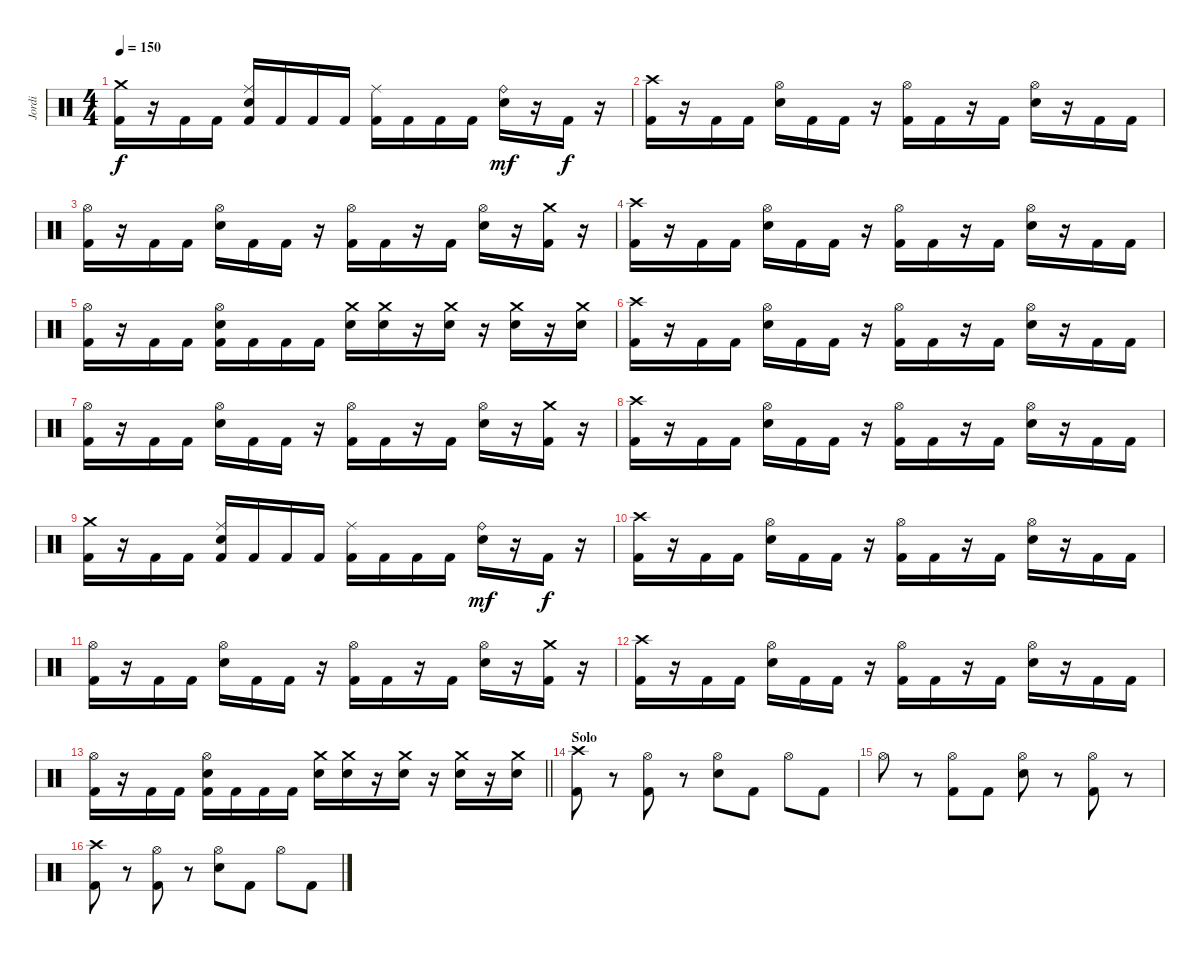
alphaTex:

\track ("Jordi" "Jordi") {instrument percussion}
\staff {score}
\articulation defaults
\ts (4 4)
\tempo 150
\clef neutral
\ks c
("Crash medium (hit)" "Kick (hit) 2").16{dy f} r.16 "Kick (hit) 2".16 "Kick (hit) 2".16 ("Ride (middle)" "Snare (hit) 2" "Kick (hit) 2").16 "Kick (hit) 2".16 "Kick (hit) 2".16 "Kick (hit) 2".16 ("Ride (middle)" "Kick (hit) 2").16 "Kick (hit) 2".16 "Kick (hit) 2".16 "Kick (hit) 2".16 ("Ride (bell)" "Snare (hit) 2").16{dy mf} r.16 "Kick (hit) 2".16{dy f} r.16 |
("Crash high (hit)" "Kick (hit) 2").16 r.16 "Kick (hit) 2".16 "Kick (hit) 2".16 ("Hi-Hat (open)" "Snare (hit) 2").16 "Kick (hit) 2".16 "Kick (hit) 2".16 r.16 ("Hi-Hat (open)" "Kick (hit) 2").16 "Kick (hit) 2".16 r.16 "Kick (hit) 2".16 ("Hi-Hat (open)" "Snare (hit) 2").16 r.16 "Kick (hit) 2".16 "Kick (hit) 2".16 |
("Hi-Hat (open)" "Kick (hit) 2").16 r.16 "Kick (hit) 2".16 "Kick (hit) 2".16 ("Hi-Hat (open)" "Snare (hit) 2").16 "Kick (hit) 2".16 "Kick (hit) 2".16 r.16 ("Hi-Hat (open)" "Kick (hit) 2").16 "Kick (hit) 2".16 r.16 "Kick (hit) 2".16 ("Hi-Hat (open)" "Snare (hit) 2").16 r.16 ("Crash medium (hit)" "Kick (hit) 2").16 r.16 |
("Crash high (hit)" "Kick (hit) 2").16 r.16 "Kick (hit) 2".16 "Kick (hit) 2".16 ("Hi-Hat (open)" "Snare (hit) 2").16 "Kick (hit) 2".16 "Kick (hit) 2".16 r.16 ("Hi-Hat (open)" "Kick (hit) 2").16 "Kick (hit) 2".16 r.16 "Kick (hit) 2".16 ("Hi-Hat (open)" "Snare (hit) 2").16 r.16 "Kick (hit) 2".16 "Kick (hit) 2".16 |
("Hi-Hat (open)" "Kick (hit) 2").16 r.16 "Kick (hit) 2".16 "Kick (hit) 2".16 ("Hi-Hat (open)" "Snare (hit) 2" "Kick (hit) 2").16 "Kick (hit) 2".16 "Kick (hit) 2".16 "Kick (hit) 2".16 ("Crash medium (hit)" "Snare (hit) 2").16 ("Crash medium (hit)" "Snare (hit) 2").16 r.16 ("Crash medium (hit)" "Snare (hit) 2").16 r.16 ("Crash medium (hit)" "Snare (hit) 2").16 r.16 ("Crash medium (hit)" "Snare (hit) 2").16 |
("Crash high (hit)" "Kick (hit) 2").16 r.16 "Kick (hit) 2".16 "Kick (hit) 2".16 ("Hi-Hat (open)" "Snare (hit) 2").16 "Kick (hit) 2".16 "Kick (hit) 2".16 r.16 ("Hi-Hat (open)" "Kick (hit) 2").16 "Kick (hit) 2".16 r.16 "Kick (hit) 2".16 ("Hi-Hat (open)" "Snare (hit) 2").16 r.16 "Kick (hit) 2".16 "Kick (hit) 2".16 |
("Hi-Hat (open)" "Kick (hit) 2").16 r.16 "Kick (hit) 2".16 "Kick (hit) 2".16 ("Hi-Hat (open)" "Snare (hit) 2").16 "Kick (hit) 2".16 "Kick (hit) 2".16 r.16 ("Hi-Hat (open)" "Kick (hit) 2").16 "Kick (hit) 2".16 r.16 "Kick (hit) 2".16 ("Hi-Hat (open)" "Snare (hit) 2").16 r.16 ("Crash medium (hit)" "Kick (hit) 2").16 r.16 |
("Crash high (hit)" "Kick (hit) 2").16 r.16 "Kick (hit) 2".16 "Kick (hit) 2".16 ("Hi-Hat (open)" "Snare (hit) 2").16 "Kick (hit) 2".16 "Kick (hit) 2".16 r.16 ("Hi-Hat (open)" "Kick (hit) 2").16 "Kick (hit) 2".16 r.16 "Kick (hit) 2".16 ("Hi-Hat (open)" "Snare (hit) 2").16 r.16 "Kick (hit) 2".16 "Kick (hit) 2".16 |
("Crash medium (hit)" "Kick (hit) 2").16 r.16 "Kick (hit) 2".16 "Kick (hit) 2".16 ("Ride (middle)" "Snare (hit) 2" "Kick (hit) 2").16 "Kick (hit) 2".16 "Kick (hit) 2".16 "Kick (hit) 2".16 ("Ride (middle)" "Kick (hit) 2").16 "Kick (hit) 2".16 "Kick (hit) 2".16 "Kick (hit) 2".16 ("Ride (bell)" "Snare (hit) 2").16{dy mf} r.16 "Kick (hit) 2".16{dy f} r.16 |
("Crash high (hit)" "Kick (hit) 2").16 r.16 "Kick (hit) 2".16 "Kick (hit) 2".16 ("Hi-Hat (open)" "Snare (hit) 2").16 "Kick (hit) 2".16 "Kick (hit) 2".16 r.16 ("Hi-Hat (open)" "Kick (hit) 2").16 "Kick (hit) 2".16 r.16 "Kick (hit) 2".16 ("Hi-Hat (open)" "Snare (hit) 2").16 r.16 "Kick (hit) 2".16 "Kick (hit) 2".16 |
("Hi-Hat (open)" "Kick (hit) 2").16 r.16 "Kick (hit) 2".16 "Kick (hit) 2".16 ("Hi-Hat (open)" "Snare (hit) 2").16 "Kick (hit) 2".16 "Kick (hit) 2".16 r.16 ("Hi-Hat (open)" "Kick (hit) 2").16 "Kick (hit) 2".16 r.16 "Kick (hit) 2".16 ("Hi-Hat (open)" "Snare (hit) 2").16 r.16 ("Crash medium (hit)" "Kick (hit) 2").16 r.16 |
("Crash high (hit)" "Kick (hit) 2").16 r.16 "Kick (hit) 2".16 "Kick (hit) 2".16 ("Hi-Hat (open)" "Snare (hit) 2").16 "Kick (hit) 2".16 "Kick (hit) 2".16 r.16 ("Hi-Hat (open)" "Kick (hit) 2").16 "Kick (hit) 2".16 r.16 "Kick (hit) 2".16 ("Hi-Hat (open)" "Snare (hit) 2").16 r.16 "Kick (hit) 2".16 "Kick (hit) 2".16 |
\barLineRight lightlight
("Hi-Hat (open)" "Kick (hit) 2").16 r.16 "Kick (hit) 2".16 "Kick (hit) 2".16 ("Hi-Hat (open)" "Snare (hit) 2" "Kick (hit) 2").16 "Kick (hit) 2".16 "Kick (hit) 2".16 "Kick (hit) 2".16 ("Crash medium (hit)" "Snare (hit) 2").16 ("Crash medium (hit)" "Snare (hit) 2").16 r.16 ("Crash medium (hit)" "Snare (hit) 2").16 r.16 ("Crash medium (hit)" "Snare (hit) 2").16 r.16 ("Crash medium (hit)" "Snare (hit) 2").16 |
\section ("" "Solo")
("Crash high (hit)" "Kick (hit) 2").8 r.8 ("Hi-Hat (open)" "Kick (hit) 2").8 r.8 ("Hi-Hat (open)" "Snare (hit) 2").8 "Kick (hit) 2".8 "Hi-Hat (open)".8 "Kick (hit) 2".8 |
"Hi-Hat (open)".8 r.8 ("Hi-Hat (open)" "Kick (hit) 2").8 "Kick (hit) 2".8 ("Hi-Hat (open)" "Snare (hit) 2").8 r.8 ("Hi-Hat (open)" "Kick (hit) 2").8 r.8 |
("Crash high (hit)" "Kick (hit) 2").8 r.8 ("Hi-Hat (open)" "Kick (hit) 2").8 r.8 ("Hi-Hat (open)" "Snare (hit) 2").8 "Kick (hit) 2".8 "Hi-Hat (open)".8 "Kick (hit) 2".8
